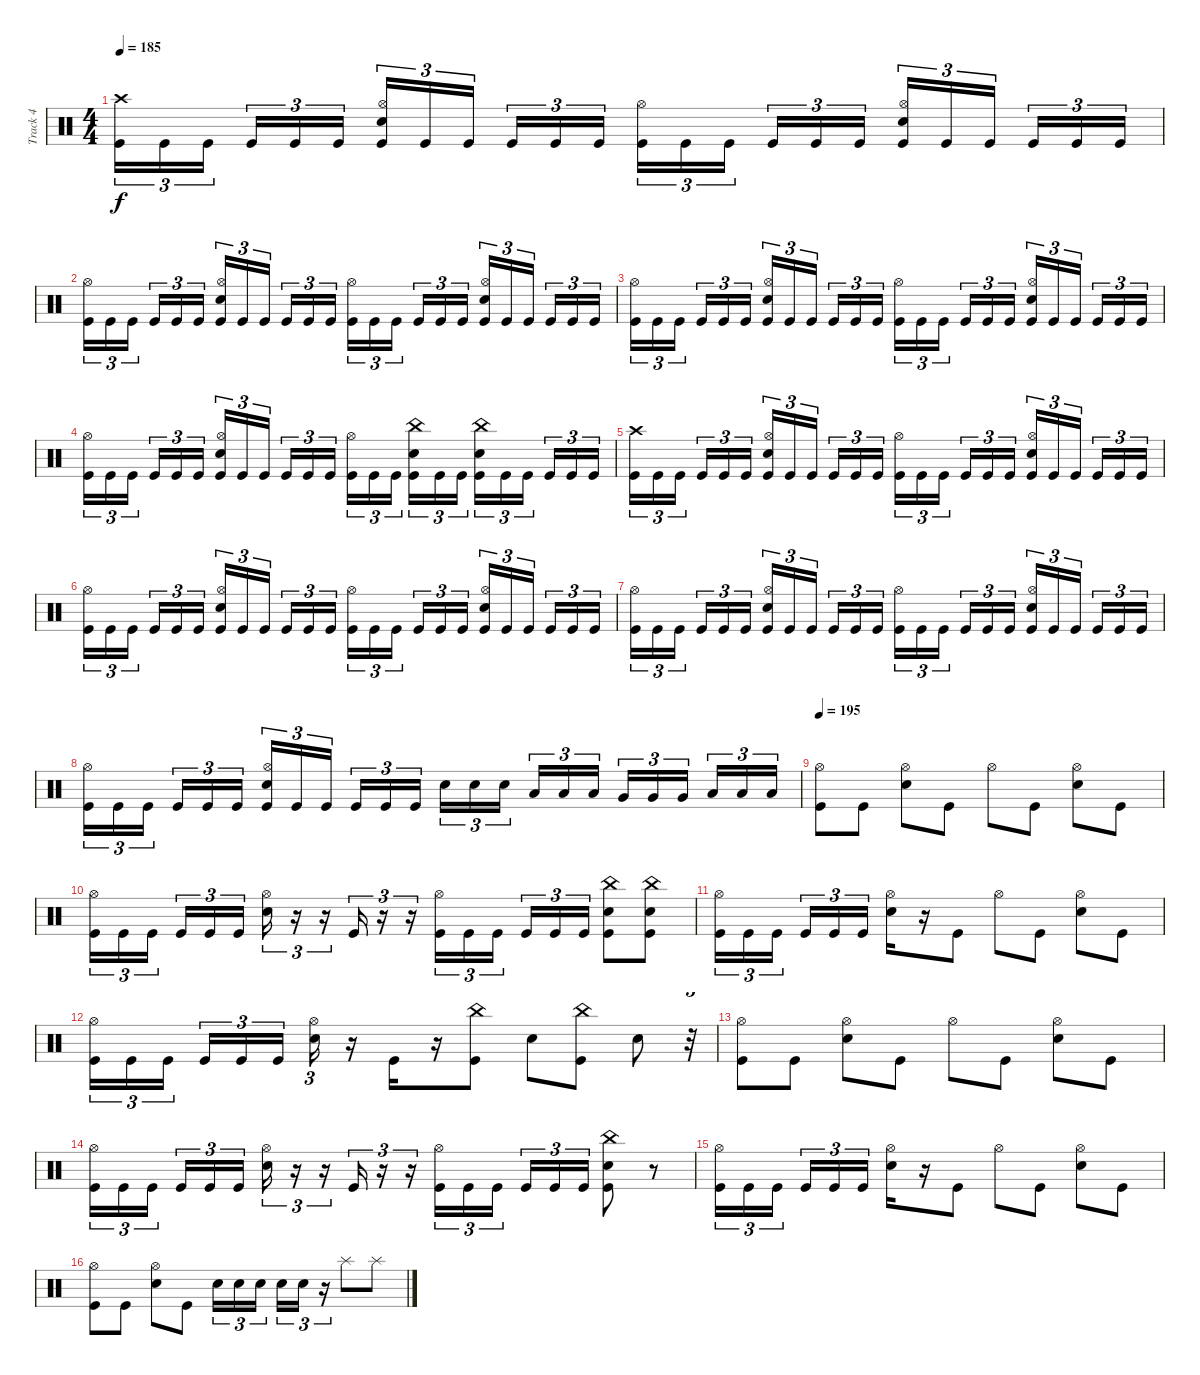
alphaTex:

\track ("Track 4" "Track 4") {instrument percussion}
\staff {score}
\articulation defaults
\ts (4 4)
\tempo 185
\clef neutral
\ks c
("Crash high (hit)" "Kick (hit)").16{tu (3 2) dy f} "Kick (hit)".16{tu (3 2)} "Kick (hit)".16{tu (3 2)} "Kick (hit)".16{tu (3 2)} "Kick (hit)".16{tu (3 2)} "Kick (hit)".16{tu (3 2)} ("Hi-Hat (open)" "Electric Snare (hit)" "Kick (hit)").16{tu (3 2)} "Kick (hit)".16{tu (3 2)} "Kick (hit)".16{tu (3 2)} "Kick (hit)".16{tu (3 2)} "Kick (hit)".16{tu (3 2)} "Kick (hit)".16{tu (3 2)} ("Hi-Hat (open)" "Kick (hit)").16{tu (3 2)} "Kick (hit)".16{tu (3 2)} "Kick (hit)".16{tu (3 2)} "Kick (hit)".16{tu (3 2)} "Kick (hit)".16{tu (3 2)} "Kick (hit)".16{tu (3 2)} ("Hi-Hat (open)" "Electric Snare (hit)" "Kick (hit)").16{tu (3 2)} "Kick (hit)".16{tu (3 2)} "Kick (hit)".16{tu (3 2)} "Kick (hit)".16{tu (3 2)} "Kick (hit)".16{tu (3 2)} "Kick (hit)".16{tu (3 2)} |
("Hi-Hat (open)" "Kick (hit)").16{tu (3 2)} "Kick (hit)".16{tu (3 2)} "Kick (hit)".16{tu (3 2)} "Kick (hit)".16{tu (3 2)} "Kick (hit)".16{tu (3 2)} "Kick (hit)".16{tu (3 2)} ("Hi-Hat (open)" "Electric Snare (hit)" "Kick (hit)").16{tu (3 2)} "Kick (hit)".16{tu (3 2)} "Kick (hit)".16{tu (3 2)} "Kick (hit)".16{tu (3 2)} "Kick (hit)".16{tu (3 2)} "Kick (hit)".16{tu (3 2)} ("Hi-Hat (open)" "Kick (hit)").16{tu (3 2)} "Kick (hit)".16{tu (3 2)} "Kick (hit)".16{tu (3 2)} "Kick (hit)".16{tu (3 2)} "Kick (hit)".16{tu (3 2)} "Kick (hit)".16{tu (3 2)} ("Hi-Hat (open)" "Electric Snare (hit)" "Kick (hit)").16{tu (3 2)} "Kick (hit)".16{tu (3 2)} "Kick (hit)".16{tu (3 2)} "Kick (hit)".16{tu (3 2)} "Kick (hit)".16{tu (3 2)} "Kick (hit)".16{tu (3 2)} |
("Hi-Hat (open)" "Kick (hit)").16{tu (3 2)} "Kick (hit)".16{tu (3 2)} "Kick (hit)".16{tu (3 2)} "Kick (hit)".16{tu (3 2)} "Kick (hit)".16{tu (3 2)} "Kick (hit)".16{tu (3 2)} ("Hi-Hat (open)" "Electric Snare (hit)" "Kick (hit)").16{tu (3 2)} "Kick (hit)".16{tu (3 2)} "Kick (hit)".16{tu (3 2)} "Kick (hit)".16{tu (3 2)} "Kick (hit)".16{tu (3 2)} "Kick (hit)".16{tu (3 2)} ("Hi-Hat (open)" "Kick (hit)").16{tu (3 2)} "Kick (hit)".16{tu (3 2)} "Kick (hit)".16{tu (3 2)} "Kick (hit)".16{tu (3 2)} "Kick (hit)".16{tu (3 2)} "Kick (hit)".16{tu (3 2)} ("Hi-Hat (open)" "Electric Snare (hit)" "Kick (hit)").16{tu (3 2)} "Kick (hit)".16{tu (3 2)} "Kick (hit)".16{tu (3 2)} "Kick (hit)".16{tu (3 2)} "Kick (hit)".16{tu (3 2)} "Kick (hit)".16{tu (3 2)} |
("Hi-Hat (open)" "Kick (hit)").16{tu (3 2)} "Kick (hit)".16{tu (3 2)} "Kick (hit)".16{tu (3 2)} "Kick (hit)".16{tu (3 2)} "Kick (hit)".16{tu (3 2)} "Kick (hit)".16{tu (3 2)} ("Hi-Hat (open)" "Electric Snare (hit)" "Kick (hit)").16{tu (3 2)} "Kick (hit)".16{tu (3 2)} "Kick (hit)".16{tu (3 2)} "Kick (hit)".16{tu (3 2)} "Kick (hit)".16{tu (3 2)} "Kick (hit)".16{tu (3 2)} ("Hi-Hat (open)" "Kick (hit)").16{tu (3 2)} "Kick (hit)".16{tu (3 2)} "Kick (hit)".16{tu (3 2)} ("China (hit)" "Electric Snare (hit)" "Kick (hit)").16{tu (3 2)} "Kick (hit)".16{tu (3 2)} "Kick (hit)".16{tu (3 2)} ("China (hit)" "Electric Snare (hit)" "Kick (hit)").16{tu (3 2)} "Kick (hit)".16{tu (3 2)} "Kick (hit)".16{tu (3 2)} "Kick (hit)".16{tu (3 2)} "Kick (hit)".16{tu (3 2)} "Kick (hit)".16{tu (3 2)} |
("Crash high (hit)" "Kick (hit)").16{tu (3 2)} "Kick (hit)".16{tu (3 2)} "Kick (hit)".16{tu (3 2)} "Kick (hit)".16{tu (3 2)} "Kick (hit)".16{tu (3 2)} "Kick (hit)".16{tu (3 2)} ("Hi-Hat (open)" "Electric Snare (hit)" "Kick (hit)").16{tu (3 2)} "Kick (hit)".16{tu (3 2)} "Kick (hit)".16{tu (3 2)} "Kick (hit)".16{tu (3 2)} "Kick (hit)".16{tu (3 2)} "Kick (hit)".16{tu (3 2)} ("Hi-Hat (open)" "Kick (hit)").16{tu (3 2)} "Kick (hit)".16{tu (3 2)} "Kick (hit)".16{tu (3 2)} "Kick (hit)".16{tu (3 2)} "Kick (hit)".16{tu (3 2)} "Kick (hit)".16{tu (3 2)} ("Hi-Hat (open)" "Electric Snare (hit)" "Kick (hit)").16{tu (3 2)} "Kick (hit)".16{tu (3 2)} "Kick (hit)".16{tu (3 2)} "Kick (hit)".16{tu (3 2)} "Kick (hit)".16{tu (3 2)} "Kick (hit)".16{tu (3 2)} |
("Hi-Hat (open)" "Kick (hit)").16{tu (3 2)} "Kick (hit)".16{tu (3 2)} "Kick (hit)".16{tu (3 2)} "Kick (hit)".16{tu (3 2)} "Kick (hit)".16{tu (3 2)} "Kick (hit)".16{tu (3 2)} ("Hi-Hat (open)" "Electric Snare (hit)" "Kick (hit)").16{tu (3 2)} "Kick (hit)".16{tu (3 2)} "Kick (hit)".16{tu (3 2)} "Kick (hit)".16{tu (3 2)} "Kick (hit)".16{tu (3 2)} "Kick (hit)".16{tu (3 2)} ("Hi-Hat (open)" "Kick (hit)").16{tu (3 2)} "Kick (hit)".16{tu (3 2)} "Kick (hit)".16{tu (3 2)} "Kick (hit)".16{tu (3 2)} "Kick (hit)".16{tu (3 2)} "Kick (hit)".16{tu (3 2)} ("Hi-Hat (open)" "Electric Snare (hit)" "Kick (hit)").16{tu (3 2)} "Kick (hit)".16{tu (3 2)} "Kick (hit)".16{tu (3 2)} "Kick (hit)".16{tu (3 2)} "Kick (hit)".16{tu (3 2)} "Kick (hit)".16{tu (3 2)} |
("Hi-Hat (open)" "Kick (hit)").16{tu (3 2)} "Kick (hit)".16{tu (3 2)} "Kick (hit)".16{tu (3 2)} "Kick (hit)".16{tu (3 2)} "Kick (hit)".16{tu (3 2)} "Kick (hit)".16{tu (3 2)} ("Hi-Hat (open)" "Electric Snare (hit)" "Kick (hit)").16{tu (3 2)} "Kick (hit)".16{tu (3 2)} "Kick (hit)".16{tu (3 2)} "Kick (hit)".16{tu (3 2)} "Kick (hit)".16{tu (3 2)} "Kick (hit)".16{tu (3 2)} ("Hi-Hat (open)" "Kick (hit)").16{tu (3 2)} "Kick (hit)".16{tu (3 2)} "Kick (hit)".16{tu (3 2)} "Kick (hit)".16{tu (3 2)} "Kick (hit)".16{tu (3 2)} "Kick (hit)".16{tu (3 2)} ("Hi-Hat (open)" "Electric Snare (hit)" "Kick (hit)").16{tu (3 2)} "Kick (hit)".16{tu (3 2)} "Kick (hit)".16{tu (3 2)} "Kick (hit)".16{tu (3 2)} "Kick (hit)".16{tu (3 2)} "Kick (hit)".16{tu (3 2)} |
("Hi-Hat (open)" "Kick (hit)").16{tu (3 2)} "Kick (hit)".16{tu (3 2)} "Kick (hit)".16{tu (3 2)} "Kick (hit)".16{tu (3 2)} "Kick (hit)".16{tu (3 2)} "Kick (hit)".16{tu (3 2)} ("Hi-Hat (open)" "Electric Snare (hit)" "Kick (hit)").16{tu (3 2)} "Kick (hit)".16{tu (3 2)} "Kick (hit)".16{tu (3 2)} "Kick (hit)".16{tu (3 2)} "Kick (hit)".16{tu (3 2)} "Kick (hit)".16{tu (3 2)} "Electric Snare (hit)".16{tu (3 2)} "Electric Snare (hit)".16{tu (3 2)} "Electric Snare (hit)".16{tu (3 2)} "Low Tom (hit)".16{tu (3 2)} "Low Tom (hit)".16{tu (3 2)} "Low Tom (hit)".16{tu (3 2)} "Very Low Tom (hit)".16{tu (3 2)} "Very Low Tom (hit)".16{tu (3 2)} "Very Low Tom (hit)".16{tu (3 2)} "Low Floor Tom (hit)".16{tu (3 2)} "Low Floor Tom (hit)".16{tu (3 2)} "Low Floor Tom (hit)".16{tu (3 2)} |
\tempo 195
("Hi-Hat (open)" "Kick (hit)").8 "Kick (hit)".8 ("Hi-Hat (open)" "Electric Snare (hit)").8 "Kick (hit)".8 "Hi-Hat (open)".8 "Kick (hit)".8 ("Hi-Hat (open)" "Electric Snare (hit)").8 "Kick (hit)".8 |
("Hi-Hat (open)" "Kick (hit)").16{tu (3 2)} "Kick (hit)".16{tu (3 2)} "Kick (hit)".16{tu (3 2)} "Kick (hit)".16{tu (3 2)} "Kick (hit)".16{tu (3 2)} "Kick (hit)".16{tu (3 2)} ("Hi-Hat (open)" "Electric Snare (hit)").16{tu (3 2)} r.16{tu (3 2)} r.16{tu (3 2)} "Kick (hit)".16{tu (3 2)} r.16{tu (3 2)} r.16{tu (3 2)} ("Hi-Hat (open)" "Kick (hit)").16{tu (3 2)} "Kick (hit)".16{tu (3 2)} "Kick (hit)".16{tu (3 2)} "Kick (hit)".16{tu (3 2)} "Kick (hit)".16{tu (3 2)} "Kick (hit)".16{tu (3 2)} ("China (hit)" "Electric Snare (hit)" "Kick (hit)").8 ("China (hit)" "Electric Snare (hit)" "Kick (hit)").8 |
("Hi-Hat (open)" "Kick (hit)").16{tu (3 2)} "Kick (hit)".16{tu (3 2)} "Kick (hit)".16{tu (3 2)} "Kick (hit)".16{tu (3 2)} "Kick (hit)".16{tu (3 2)} "Kick (hit)".16{tu (3 2)} ("Hi-Hat (open)" "Electric Snare (hit)").16 r.16 "Kick (hit)".8 "Hi-Hat (open)".8 "Kick (hit)".8 ("Hi-Hat (open)" "Electric Snare (hit)").8 "Kick (hit)".8 |
("Hi-Hat (open)" "Kick (hit)").16{tu (3 2)} "Kick (hit)".16{tu (3 2)} "Kick (hit)".16{tu (3 2)} "Kick (hit)".16{tu (3 2)} "Kick (hit)".16{tu (3 2)} "Kick (hit)".16{tu (3 2)} ("Hi-Hat (open)" "Electric Snare (hit)").16{tu (3 2)} r.16 "Kick (hit)".16 r.16 ("China (hit)" "Kick (hit)").8 "Electric Snare (hit)".8 ("China (hit)" "Kick (hit)").8 "Electric Snare (hit)".8 r.32{tu (3 2)} |
("Hi-Hat (open)" "Kick (hit)").8 "Kick (hit)".8 ("Hi-Hat (open)" "Electric Snare (hit)").8 "Kick (hit)".8 "Hi-Hat (open)".8 "Kick (hit)".8 ("Hi-Hat (open)" "Electric Snare (hit)").8 "Kick (hit)".8 |
("Hi-Hat (open)" "Kick (hit)").16{tu (3 2)} "Kick (hit)".16{tu (3 2)} "Kick (hit)".16{tu (3 2)} "Kick (hit)".16{tu (3 2)} "Kick (hit)".16{tu (3 2)} "Kick (hit)".16{tu (3 2)} ("Hi-Hat (open)" "Electric Snare (hit)").16{tu (3 2)} r.16{tu (3 2)} r.16{tu (3 2)} "Kick (hit)".16{tu (3 2)} r.16{tu (3 2)} r.16{tu (3 2)} ("Hi-Hat (open)" "Kick (hit)").16{tu (3 2)} "Kick (hit)".16{tu (3 2)} "Kick (hit)".16{tu (3 2)} "Kick (hit)".16{tu (3 2)} "Kick (hit)".16{tu (3 2)} "Kick (hit)".16{tu (3 2)} ("China (hit)" "Electric Snare (hit)" "Kick (hit)").8 r.8 |
("Hi-Hat (open)" "Kick (hit)").16{tu (3 2)} "Kick (hit)".16{tu (3 2)} "Kick (hit)".16{tu (3 2)} "Kick (hit)".16{tu (3 2)} "Kick (hit)".16{tu (3 2)} "Kick (hit)".16{tu (3 2)} ("Hi-Hat (open)" "Electric Snare (hit)").16 r.16 "Kick (hit)".8 "Hi-Hat (open)".8 "Kick (hit)".8 ("Hi-Hat (open)" "Electric Snare (hit)").8 "Kick (hit)".8 |
("Hi-Hat (open)" "Kick (hit)").8 "Kick (hit)".8 ("Hi-Hat (open)" "Electric Snare (hit)").8 "Kick (hit)".8 "Electric Snare (hit)".16{tu (3 2)} "Electric Snare (hit)".16{tu (3 2)} "Electric Snare (hit)".16{tu (3 2)} "Electric Snare (hit)".16{tu (3 2)} "Electric Snare (hit)".16{tu (3 2)} r.16{tu (3 2)} "Splash (hit)".8 "Splash (hit)".8
